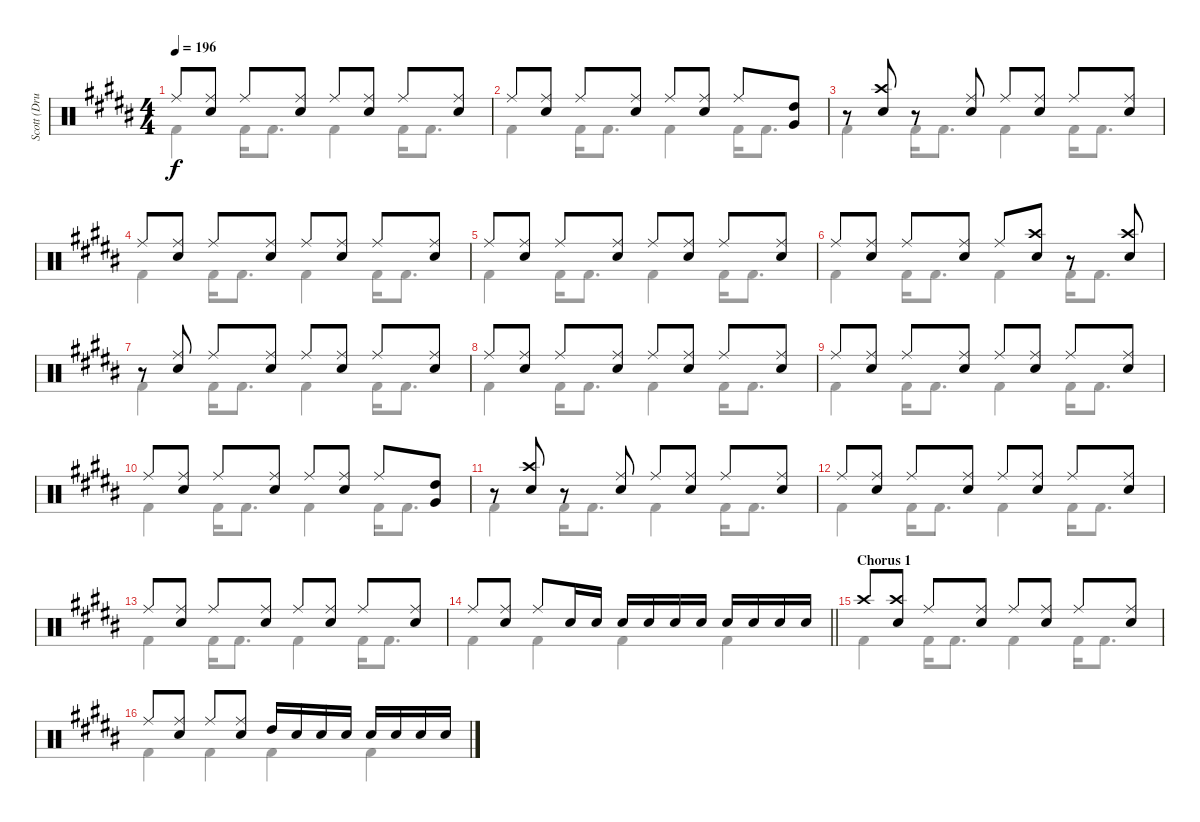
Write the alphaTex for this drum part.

\track ("Scott (Drums)" "Scott (Dru") {instrument percussion}
\staff {score}
\articulation defaults
\voice
\ts (4 4)
\tempo 196
\clef neutral
\ks b "Ride (middle)".8{dy f}
("Ride (middle)" "Electric Snare (hit)").8 "Ride (middle)".8 ("Ride (middle)" "Electric Snare (hit)").8 "Ride (middle)".8 ("Ride (middle)" "Electric Snare (hit)").8 "Ride (middle)".8 ("Ride (middle)" "Electric Snare (hit)").8 |
"Ride (middle)".8 ("Ride (middle)" "Electric Snare (hit)").8 "Ride (middle)".8 ("Ride (middle)" "Electric Snare (hit)").8 "Ride (middle)".8 ("Ride (middle)" "Electric Snare (hit)").8 "Ride (middle)".8 ("Very Low Tom (hit)" "High Tom (hit)").8 |
r.8 ("Crash high (hit)" "Electric Snare (hit)").8 r.8 ("Ride (middle)" "Electric Snare (hit)").8 "Ride (middle)".8 ("Ride (middle)" "Electric Snare (hit)").8 "Ride (middle)".8 ("Ride (middle)" "Electric Snare (hit)").8 |
"Ride (middle)".8 ("Ride (middle)" "Electric Snare (hit)").8 "Ride (middle)".8 ("Ride (middle)" "Electric Snare (hit)").8 "Ride (middle)".8 ("Ride (middle)" "Electric Snare (hit)").8 "Ride (middle)".8 ("Ride (middle)" "Electric Snare (hit)").8 |
"Ride (middle)".8 ("Ride (middle)" "Electric Snare (hit)").8 "Ride (middle)".8 ("Ride (middle)" "Electric Snare (hit)").8 "Ride (middle)".8 ("Ride (middle)" "Electric Snare (hit)").8 "Ride (middle)".8 ("Ride (middle)" "Electric Snare (hit)").8 |
"Ride (middle)".8 ("Ride (middle)" "Electric Snare (hit)").8 "Ride (middle)".8 ("Ride (middle)" "Electric Snare (hit)").8 "Ride (middle)".8 ("Crash high (hit)" "Electric Snare (hit)").8 r.8 ("Crash high (hit)" "Electric Snare (hit)").8 |
r.8 ("Ride (middle)" "Electric Snare (hit)").8 "Ride (middle)".8 ("Ride (middle)" "Electric Snare (hit)").8 "Ride (middle)".8 ("Ride (middle)" "Electric Snare (hit)").8 "Ride (middle)".8 ("Ride (middle)" "Electric Snare (hit)").8 |
"Ride (middle)".8 ("Ride (middle)" "Electric Snare (hit)").8 "Ride (middle)".8 ("Ride (middle)" "Electric Snare (hit)").8 "Ride (middle)".8 ("Ride (middle)" "Electric Snare (hit)").8 "Ride (middle)".8 ("Ride (middle)" "Electric Snare (hit)").8 |
"Ride (middle)".8 ("Ride (middle)" "Electric Snare (hit)").8 "Ride (middle)".8 ("Ride (middle)" "Electric Snare (hit)").8 "Ride (middle)".8 ("Ride (middle)" "Electric Snare (hit)").8 "Ride (middle)".8 ("Ride (middle)" "Electric Snare (hit)").8 |
"Ride (middle)".8 ("Ride (middle)" "Electric Snare (hit)").8 "Ride (middle)".8 ("Ride (middle)" "Electric Snare (hit)").8 "Ride (middle)".8 ("Ride (middle)" "Electric Snare (hit)").8 "Ride (middle)".8 ("Very Low Tom (hit)" "High Tom (hit)").8 |
r.8 ("Crash high (hit)" "Electric Snare (hit)").8 r.8 ("Ride (middle)" "Electric Snare (hit)").8 "Ride (middle)".8 ("Ride (middle)" "Electric Snare (hit)").8 "Ride (middle)".8 ("Ride (middle)" "Electric Snare (hit)").8 |
"Ride (middle)".8 ("Ride (middle)" "Electric Snare (hit)").8 "Ride (middle)".8 ("Ride (middle)" "Electric Snare (hit)").8 "Ride (middle)".8 ("Ride (middle)" "Electric Snare (hit)").8 "Ride (middle)".8 ("Ride (middle)" "Electric Snare (hit)").8 |
"Ride (middle)".8 ("Ride (middle)" "Electric Snare (hit)").8 "Ride (middle)".8 ("Ride (middle)" "Electric Snare (hit)").8 "Ride (middle)".8 ("Ride (middle)" "Electric Snare (hit)").8 "Ride (middle)".8 ("Ride (middle)" "Electric Snare (hit)").8 |
\barLineRight lightlight "Ride (middle)".8
("Ride (middle)" "Electric Snare (hit)").8 "Ride (middle)".8 "Electric Snare (hit)".16 "Electric Snare (hit)".16 "Electric Snare (hit)".16 "Electric Snare (hit)".16 "Electric Snare (hit)".16 "Electric Snare (hit)".16 "Electric Snare (hit)".16 "Electric Snare (hit)".16 "Electric Snare (hit)".16 "Electric Snare (hit)".16 |
\section ("" "Chorus 1")
"Crash high (hit)".8 ("Crash high (hit)" "Electric Snare (hit)").8 "Ride (middle)".8 ("Ride (middle)" "Electric Snare (hit)").8 "Ride (middle)".8 ("Ride (middle)" "Electric Snare (hit)").8 "Ride (middle)".8 ("Ride (middle)" "Electric Snare (hit)").8 |
"Ride (middle)".8 ("Ride (middle)" "Electric Snare (hit)").8 "Ride (middle)".8 ("Ride (middle)" "Electric Snare (hit)").8 "High Tom (hit)".16 "Electric Snare (hit)".16 "Electric Snare (hit)".16 "Electric Snare (hit)".16 "Electric Snare (hit)".16 "Electric Snare (hit)".16 "Electric Snare (hit)".16 "Electric Snare (hit)".16
\voice
\clef neutral
\ottava regular
\simile none
\ks b "Kick (hit) 2".4{dy f} "Kick (hit) 2".16 "Kick (hit) 2".8{d} "Kick (hit) 2".4 "Kick (hit) 2".16 "Kick (hit) 2".8{d}
|
"Kick (hit) 2".4 "Kick (hit) 2".16 "Kick (hit) 2".8{d} "Kick (hit) 2".4 "Kick (hit) 2".16 "Kick (hit) 2".8{d} |
"Kick (hit) 2".4 "Kick (hit) 2".16 "Kick (hit) 2".8{d} "Kick (hit) 2".4 "Kick (hit) 2".16 "Kick (hit) 2".8{d} |
"Kick (hit) 2".4 "Kick (hit) 2".16 "Kick (hit) 2".8{d} "Kick (hit) 2".4 "Kick (hit) 2".16 "Kick (hit) 2".8{d} |
"Kick (hit) 2".4 "Kick (hit) 2".16 "Kick (hit) 2".8{d} "Kick (hit) 2".4 "Kick (hit) 2".16 "Kick (hit) 2".8{d} |
"Kick (hit) 2".4 "Kick (hit) 2".16 "Kick (hit) 2".8{d} "Kick (hit) 2".4 "Kick (hit) 2".16 "Kick (hit) 2".8{d} |
"Kick (hit) 2".4 "Kick (hit) 2".16 "Kick (hit) 2".8{d} "Kick (hit) 2".4 "Kick (hit) 2".16 "Kick (hit) 2".8{d} |
"Kick (hit) 2".4 "Kick (hit) 2".16 "Kick (hit) 2".8{d} "Kick (hit) 2".4 "Kick (hit) 2".16 "Kick (hit) 2".8{d} |
"Kick (hit) 2".4 "Kick (hit) 2".16 "Kick (hit) 2".8{d} "Kick (hit) 2".4 "Kick (hit) 2".16 "Kick (hit) 2".8{d} |
"Kick (hit) 2".4 "Kick (hit) 2".16 "Kick (hit) 2".8{d} "Kick (hit) 2".4 "Kick (hit) 2".16 "Kick (hit) 2".8{d} |
"Kick (hit) 2".4 "Kick (hit) 2".16 "Kick (hit) 2".8{d} "Kick (hit) 2".4 "Kick (hit) 2".16 "Kick (hit) 2".8{d} |
"Kick (hit) 2".4 "Kick (hit) 2".16 "Kick (hit) 2".8{d} "Kick (hit) 2".4 "Kick (hit) 2".16 "Kick (hit) 2".8{d} |
"Kick (hit) 2".4 "Kick (hit) 2".16 "Kick (hit) 2".8{d} "Kick (hit) 2".4 "Kick (hit) 2".16 "Kick (hit) 2".8{d} |
\barLineRight lightlight "Kick (hit) 2".4 "Kick (hit) 2".4 "Kick (hit) 2".4 "Kick (hit) 2".4
|
"Kick (hit) 2".4 "Kick (hit) 2".16 "Kick (hit) 2".8{d} "Kick (hit) 2".4 "Kick (hit) 2".16 "Kick (hit) 2".8{d} |
"Kick (hit) 2".4 "Kick (hit) 2".4 "Kick (hit) 2".4 "Kick (hit) 2".4
